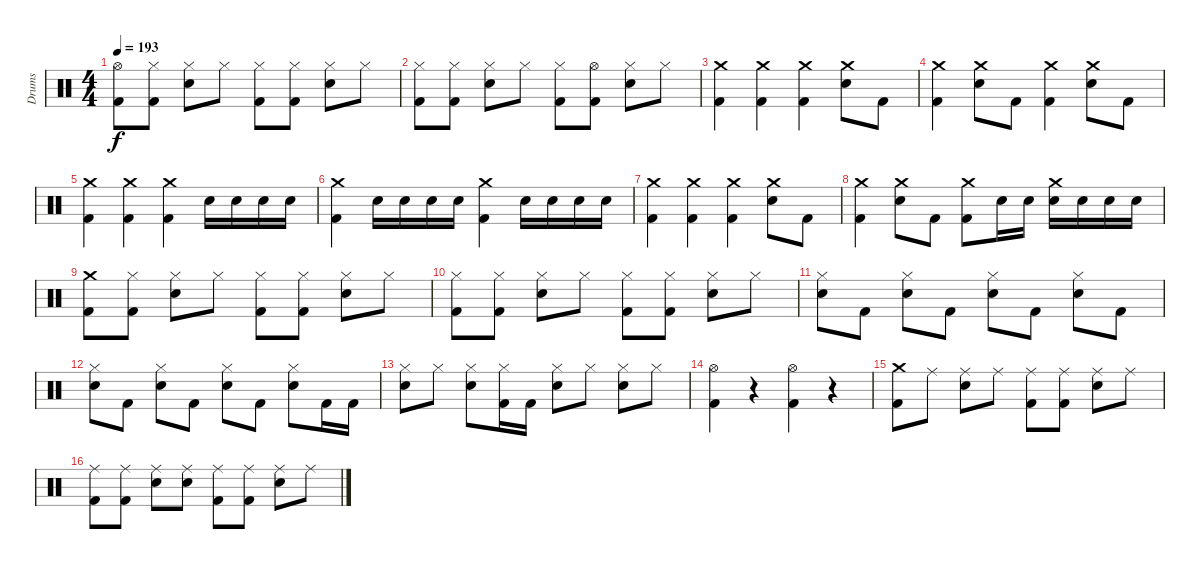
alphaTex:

\track ("Drums" "Drums") {instrument percussion}
\staff {score}
\articulation defaults
\ts (4 4)
\tempo 193
\clef neutral
\ks c
("Hi-Hat (open)" "Kick (hit) 2").8{dy f} ("Hi-Hat (closed)" "Kick (hit) 2").8 ("Hi-Hat (closed)" "Snare (hit) 2").8 "Hi-Hat (closed)".8 ("Hi-Hat (closed)" "Kick (hit) 2").8 ("Hi-Hat (closed)" "Kick (hit) 2").8 ("Hi-Hat (closed)" "Snare (hit) 2").8 "Hi-Hat (closed)".8 |
("Hi-Hat (closed)" "Kick (hit) 2").8 ("Hi-Hat (closed)" "Kick (hit) 2").8 ("Hi-Hat (closed)" "Snare (hit) 2").8 "Hi-Hat (closed)".8 ("Hi-Hat (closed)" "Kick (hit) 2").8 ("Hi-Hat (open)" "Kick (hit) 2").8 ("Hi-Hat (closed)" "Snare (hit) 2").8 "Hi-Hat (closed)".8 |
("Crash medium (hit)" "Kick (hit) 2").4 ("Crash medium (hit)" "Kick (hit) 2").4 ("Crash medium (hit)" "Kick (hit) 2").4 ("Crash medium (hit)" "Snare (hit) 2").8 "Kick (hit) 2".8 |
("Crash medium (hit)" "Kick (hit) 2").4 ("Crash medium (hit)" "Snare (hit) 2").8 "Kick (hit) 2".8 ("Crash medium (hit)" "Kick (hit) 2").4 ("Crash medium (hit)" "Snare (hit) 2").8 "Kick (hit) 2".8 |
("Crash medium (hit)" "Kick (hit) 2").4 ("Crash medium (hit)" "Kick (hit) 2").4 ("Crash medium (hit)" "Kick (hit) 2").4 "Snare (hit) 2".16 "Snare (hit) 2".16 "Snare (hit) 2".16 "Snare (hit) 2".16 |
("Crash medium (hit)" "Kick (hit) 2").4 "Snare (hit) 2".16 "Snare (hit) 2".16 "Snare (hit) 2".16 "Snare (hit) 2".16 ("Crash medium (hit)" "Kick (hit) 2").4 "Snare (hit) 2".16 "Snare (hit) 2".16 "Snare (hit) 2".16 "Snare (hit) 2".16 |
("Crash medium (hit)" "Kick (hit) 2").4 ("Crash medium (hit)" "Kick (hit) 2").4 ("Crash medium (hit)" "Kick (hit) 2").4 ("Crash medium (hit)" "Snare (hit) 2").8 "Kick (hit) 2".8 |
("Crash medium (hit)" "Kick (hit) 2").4 ("Crash medium (hit)" "Snare (hit) 2").8 "Kick (hit) 2".8 ("Crash medium (hit)" "Kick (hit) 2").8 "Snare (hit) 2".16 "Snare (hit) 2".16 ("Crash medium (hit)" "Snare (hit) 2").16 "Snare (hit) 2".16 "Snare (hit) 2".16 "Snare (hit) 2".16 |
("Crash medium (hit)" "Kick (hit) 2").8 ("Hi-Hat (closed)" "Kick (hit) 2").8 ("Hi-Hat (closed)" "Snare (hit) 2").8 "Hi-Hat (closed)".8 ("Hi-Hat (closed)" "Kick (hit) 2").8 ("Hi-Hat (closed)" "Kick (hit) 2").8 ("Hi-Hat (closed)" "Snare (hit) 2").8 "Hi-Hat (closed)".8 |
("Hi-Hat (closed)" "Kick (hit) 2").8 ("Hi-Hat (closed)" "Kick (hit) 2").8 ("Hi-Hat (closed)" "Snare (hit) 2").8 "Hi-Hat (closed)".8 ("Hi-Hat (closed)" "Kick (hit) 2").8 ("Hi-Hat (closed)" "Kick (hit) 2").8 ("Hi-Hat (closed)" "Snare (hit) 2").8 "Hi-Hat (closed)".8 |
("Hi-Hat (closed)" "Snare (hit) 2").8 "Kick (hit) 2".8 ("Hi-Hat (closed)" "Snare (hit) 2").8 "Kick (hit) 2".8 ("Hi-Hat (closed)" "Snare (hit) 2").8 "Kick (hit) 2".8 ("Hi-Hat (closed)" "Snare (hit) 2").8 "Kick (hit) 2".8 |
("Hi-Hat (closed)" "Snare (hit) 2").8 "Kick (hit) 2".8 ("Hi-Hat (closed)" "Snare (hit) 2").8 "Kick (hit) 2".8 ("Hi-Hat (closed)" "Snare (hit) 2").8 "Kick (hit) 2".8 ("Hi-Hat (closed)" "Snare (hit) 2").8 "Kick (hit) 2".16 "Kick (hit) 2".16 |
("Hi-Hat (closed)" "Snare (hit) 2").8 "Hi-Hat (closed)".8 ("Hi-Hat (closed)" "Snare (hit) 2").8 ("Hi-Hat (closed)" "Kick (hit) 2").16 "Kick (hit) 2".16 ("Hi-Hat (closed)" "Snare (hit) 2").8 "Hi-Hat (closed)".8 ("Hi-Hat (closed)" "Snare (hit) 2").8 "Hi-Hat (closed)".8 |
("Hi-Hat (open)" "Kick (hit) 2").4 r.4 ("Hi-Hat (open)" "Kick (hit) 2").4 r.4 |
("Crash medium (hit)" "Kick (hit) 2").8 "Ride (middle)".8 ("Ride (middle)" "Snare (hit) 2").8 "Ride (middle)".8 ("Ride (middle)" "Kick (hit) 2").8 ("Ride (middle)" "Kick (hit) 2").8 ("Ride (middle)" "Snare (hit) 2").8 "Ride (middle)".8 |
("Ride (middle)" "Kick (hit) 2").8 ("Ride (middle)" "Kick (hit) 2").8 ("Ride (middle)" "Snare (hit) 2").8 ("Ride (middle)" "Snare (hit) 2").8 ("Ride (middle)" "Kick (hit) 2").8 ("Ride (middle)" "Kick (hit) 2").8 ("Ride (middle)" "Snare (hit) 2").8 "Ride (middle)".8
